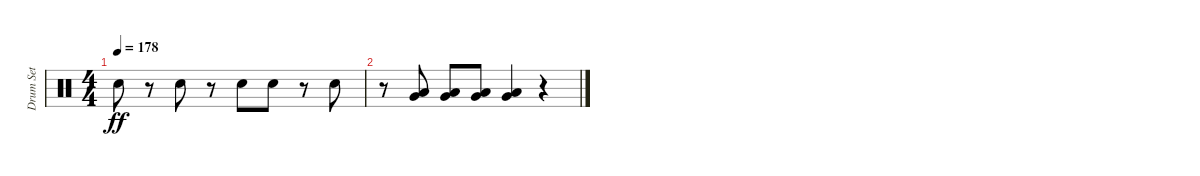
\track ("Drum Set" "Drum Set") {instrument percussion}
\staff {score}
\articulation defaults
\ts (4 4)
\tempo 178
\clef neutral
\ks c "Electric Snare (hit)".8{dy ff}
r.8 "Electric Snare (hit)".8 r.8 "Electric Snare (hit)".8 "Electric Snare (hit)".8 r.8 "Electric Snare (hit)".8 |
r.8 ("Low Tom (hit)" "Very Low Tom (hit)").8 ("Low Tom (hit)" "Very Low Tom (hit)").8 ("Low Tom (hit)" "Very Low Tom (hit)").8 ("Low Tom (hit)" "Very Low Tom (hit)").4 r.4
